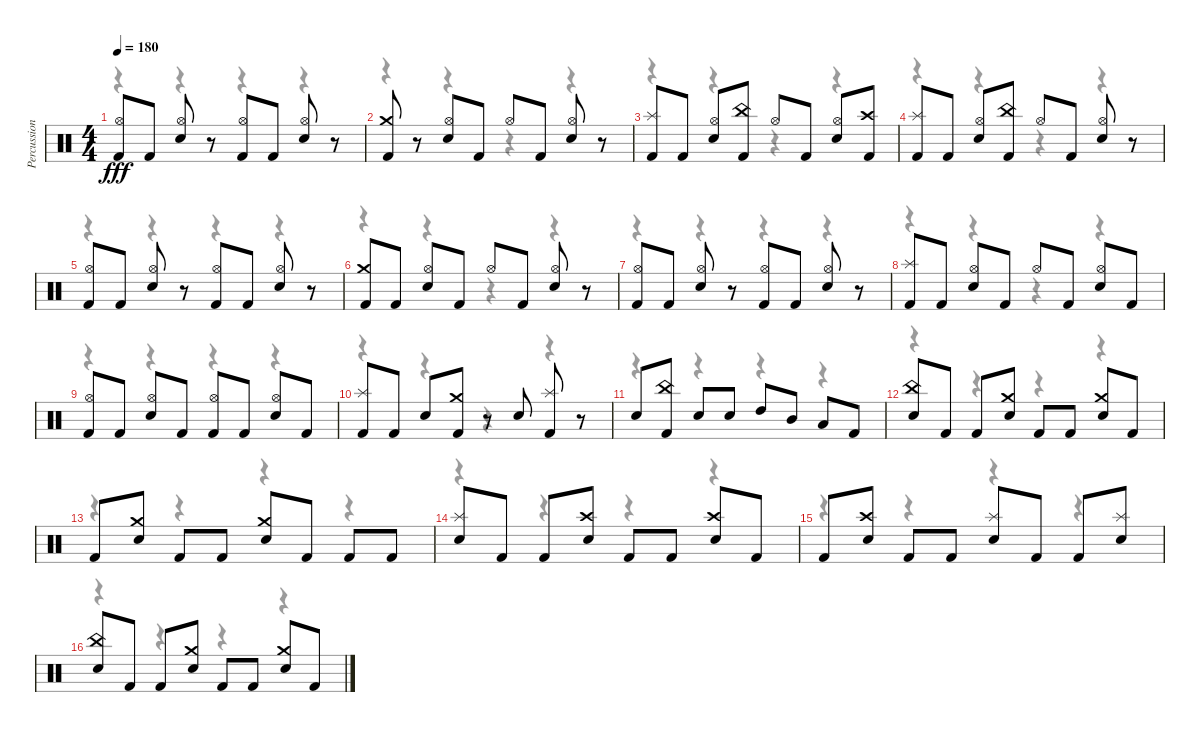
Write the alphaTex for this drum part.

\track ("Percussion" "Percussion") {instrument percussion}
\staff {score}
\articulation defaults
\voice
\ts (4 4)
\tempo 180
\clef neutral
\ks c
("Hi-Hat (open)" "Kick (hit) 2").8{dy fff} "Kick (hit) 2".8 ("Hi-Hat (open)" "Snare (hit) 2").8 r.8 ("Hi-Hat (open)" "Kick (hit) 2").8 "Kick (hit) 2".8 ("Hi-Hat (open)" "Snare (hit) 2").8 r.8 |
("Kick (hit) 2" "Crash medium (hit)").8 r.8 ("Hi-Hat (open)" "Snare (hit) 2").8 "Kick (hit) 2".8 "Hi-Hat (open)".8 "Kick (hit) 2".8 ("Hi-Hat (open)" "Snare (hit) 2").8 r.8 |
("Kick (hit) 2" "Splash (hit)").8 "Kick (hit) 2".8 ("Hi-Hat (open)" "Snare (hit) 2").8 ("Kick (hit) 2" "China (hit)").8 "Hi-Hat (open)".8 "Kick (hit) 2".8 ("Hi-Hat (open)" "Snare (hit) 2").8 ("Kick (hit) 2" "Crash high (hit)").8 |
("Kick (hit) 2" "Splash (hit)").8 "Kick (hit) 2".8 ("Hi-Hat (open)" "Snare (hit) 2").8 ("Kick (hit) 2" "China (hit)").8 "Hi-Hat (open)".8 "Kick (hit) 2".8 ("Hi-Hat (open)" "Snare (hit) 2").8 r.8 |
("Hi-Hat (open)" "Kick (hit) 2").8 "Kick (hit) 2".8 ("Hi-Hat (open)" "Snare (hit) 2").8 r.8 ("Hi-Hat (open)" "Kick (hit) 2").8 "Kick (hit) 2".8 ("Hi-Hat (open)" "Snare (hit) 2").8 r.8 |
("Kick (hit) 2" "Crash medium (hit)").8 "Kick (hit) 2".8 ("Hi-Hat (open)" "Snare (hit) 2").8 "Kick (hit) 2".8 "Hi-Hat (open)".8 "Kick (hit) 2".8 ("Hi-Hat (open)" "Snare (hit) 2").8 r.8 |
("Hi-Hat (open)" "Kick (hit) 2").8 "Kick (hit) 2".8 ("Hi-Hat (open)" "Snare (hit) 2").8 r.8 ("Hi-Hat (open)" "Kick (hit) 2").8 "Kick (hit) 2".8 ("Hi-Hat (open)" "Snare (hit) 2").8 r.8 |
("Kick (hit) 2" "Splash (hit)").8 "Kick (hit) 2".8 ("Hi-Hat (open)" "Snare (hit) 2").8 "Kick (hit) 2".8 "Hi-Hat (open)".8 "Kick (hit) 2".8 ("Hi-Hat (open)" "Snare (hit) 2").8 "Kick (hit) 2".8 |
("Hi-Hat (open)" "Kick (hit) 2").8 "Kick (hit) 2".8 ("Hi-Hat (open)" "Snare (hit) 2").8 "Kick (hit) 2".8 ("Hi-Hat (open)" "Kick (hit) 2").8 "Kick (hit) 2".8 ("Hi-Hat (open)" "Snare (hit) 2").8 "Kick (hit) 2".8 |
("Kick (hit) 2" "Splash (hit)").8 "Kick (hit) 2".8 "Snare (hit) 2".8 ("Kick (hit) 2" "Crash medium (hit)").8 r.8 "Snare (hit) 2".8 ("Kick (hit) 2" "Splash (hit)").8 r.8 |
"Snare (hit) 2".8 ("Kick (hit) 2" "China (hit)").8 "Snare (hit) 2".8 "Snare (hit) 2".8 "High Tom (hit)".8 "Mid Tom (hit)".8 "Low Tom (hit)".8 "Kick (hit) 2".8 |
("Snare (hit) 2" "China (hit)").8 "Kick (hit) 2".8 "Kick (hit) 2".8 ("Snare (hit) 2" "Crash medium (hit)").8 "Kick (hit) 2".8 "Kick (hit) 2".8 ("Snare (hit) 2" "Crash medium (hit)").8 "Kick (hit) 2".8 |
"Kick (hit) 2".8 ("Snare (hit) 2" "Crash medium (hit)").8 "Kick (hit) 2".8 "Kick (hit) 2".8 ("Snare (hit) 2" "Crash medium (hit)").8 "Kick (hit) 2".8 "Kick (hit) 2".8 "Kick (hit) 2".8 |
("Snare (hit) 2" "Splash (hit)").8 "Kick (hit) 2".8 "Kick (hit) 2".8 ("Snare (hit) 2" "Crash high (hit)").8 "Kick (hit) 2".8 "Kick (hit) 2".8 ("Snare (hit) 2" "Crash high (hit)").8 "Kick (hit) 2".8 |
"Kick (hit) 2".8 ("Snare (hit) 2" "Crash high (hit)").8 "Kick (hit) 2".8 "Kick (hit) 2".8 ("Snare (hit) 2" "Splash (hit)").8 "Kick (hit) 2".8 "Kick (hit) 2".8 ("Snare (hit) 2" "Splash (hit)").8 |
("Snare (hit) 2" "China (hit)").8 "Kick (hit) 2".8 "Kick (hit) 2".8 ("Snare (hit) 2" "Crash medium (hit)").8 "Kick (hit) 2".8 "Kick (hit) 2".8 ("Snare (hit) 2" "Crash medium (hit)").8 "Kick (hit) 2".8
\voice
\clef neutral
\ottava regular
\simile none
\ks c
r.4{dy f} r.4 r.4 r.4 |
r.4 r.4 r.4 r.4 |
r.4 r.4 r.4 r.4 |
r.4 r.4 r.4 r.4 |
r.4 r.4 r.4 r.4 |
r.4 r.4 r.4 r.4 |
r.4 r.4 r.4 r.4 |
r.4 r.4 r.4 r.4 |
r.4 r.4 r.4 r.4 |
r.4 r.4 r.4 r.4 |
r.4 r.4 r.4 r.4 |
r.4 r.4 r.4 r.4 |
r.4 r.4 r.4 r.4 |
r.4 r.4 r.4 r.4 |
r.4 r.4 r.4 r.4 |
r.4 r.4 r.4 r.4
